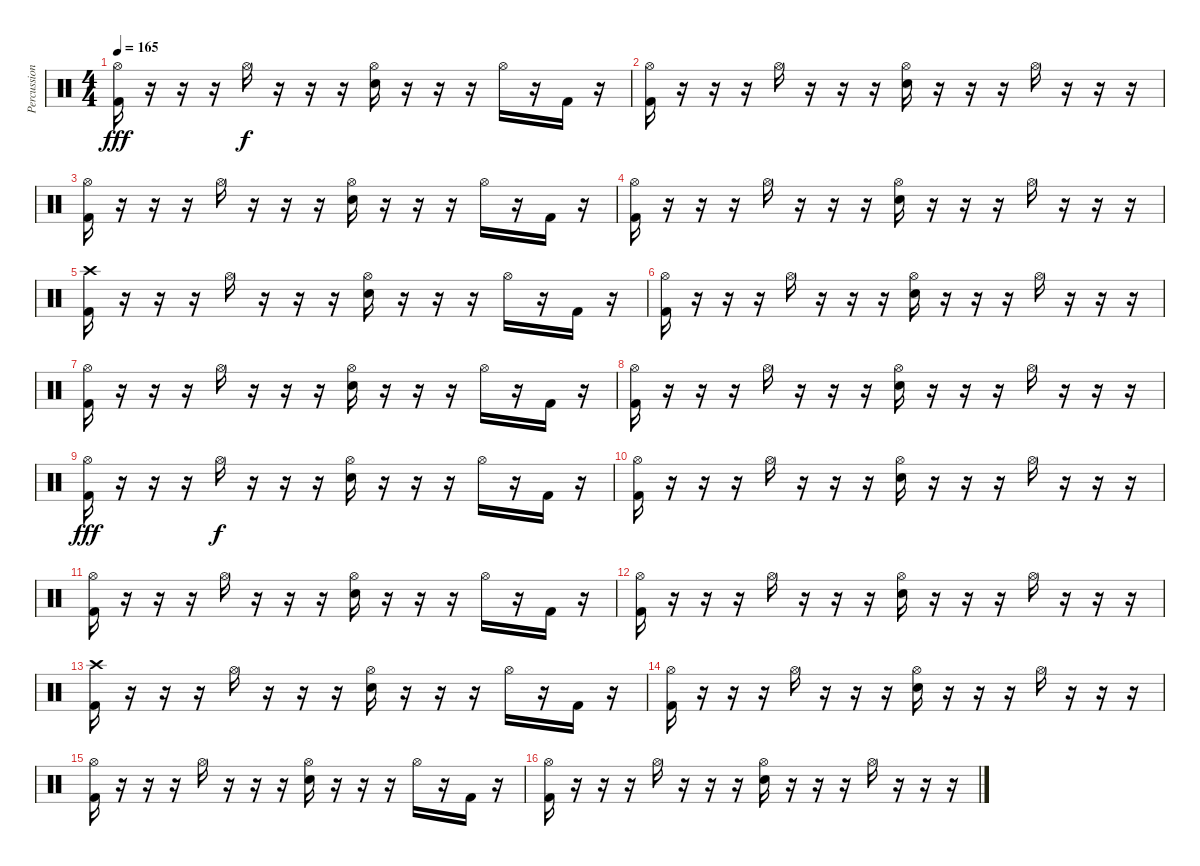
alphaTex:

\track ("Percussion" "Percussion") {instrument percussion}
\staff {score}
\articulation defaults
\ts (4 4)
\tempo 165
\clef neutral
\ks c
("Hi-Hat (open)" "Kick (hit) 2").16{dy fff} r.16 r.16 r.16 "Hi-Hat (open)".16{dy f} r.16 r.16 r.16 ("Hi-Hat (open)" "Snare (hit) 2").16 r.16 r.16 r.16 "Hi-Hat (open)".16 r.16 "Kick (hit) 2".16 r.16 |
("Hi-Hat (open)" "Kick (hit) 2").16 r.16 r.16 r.16 "Hi-Hat (open)".16 r.16 r.16 r.16 ("Hi-Hat (open)" "Snare (hit) 2").16 r.16 r.16 r.16 "Hi-Hat (open)".16 r.16 r.16 r.16 |
("Hi-Hat (open)" "Kick (hit) 2").16 r.16 r.16 r.16 "Hi-Hat (open)".16 r.16 r.16 r.16 ("Hi-Hat (open)" "Snare (hit) 2").16 r.16 r.16 r.16 "Hi-Hat (open)".16 r.16 "Kick (hit) 2".16 r.16 |
("Hi-Hat (open)" "Kick (hit) 2").16 r.16 r.16 r.16 "Hi-Hat (open)".16 r.16 r.16 r.16 ("Hi-Hat (open)" "Snare (hit) 2").16 r.16 r.16 r.16 "Hi-Hat (open)".16 r.16 r.16 r.16 |
("Crash high (hit)" "Kick (hit) 2").16 r.16 r.16 r.16 "Hi-Hat (open)".16 r.16 r.16 r.16 ("Hi-Hat (open)" "Snare (hit) 2").16 r.16 r.16 r.16 "Hi-Hat (open)".16 r.16 "Kick (hit) 2".16 r.16 |
("Hi-Hat (open)" "Kick (hit) 2").16 r.16 r.16 r.16 "Hi-Hat (open)".16 r.16 r.16 r.16 ("Hi-Hat (open)" "Snare (hit) 2").16 r.16 r.16 r.16 "Hi-Hat (open)".16 r.16 r.16 r.16 |
("Hi-Hat (open)" "Kick (hit) 2").16 r.16 r.16 r.16 "Hi-Hat (open)".16 r.16 r.16 r.16 ("Hi-Hat (open)" "Snare (hit) 2").16 r.16 r.16 r.16 "Hi-Hat (open)".16 r.16 "Kick (hit) 2".16 r.16 |
("Hi-Hat (open)" "Kick (hit) 2").16 r.16 r.16 r.16 "Hi-Hat (open)".16 r.16 r.16 r.16 ("Hi-Hat (open)" "Snare (hit) 2").16 r.16 r.16 r.16 "Hi-Hat (open)".16 r.16 r.16 r.16 |
("Hi-Hat (open)" "Kick (hit) 2").16{dy fff} r.16 r.16 r.16 "Hi-Hat (open)".16{dy f} r.16 r.16 r.16 ("Hi-Hat (open)" "Snare (hit) 2").16 r.16 r.16 r.16 "Hi-Hat (open)".16 r.16 "Kick (hit) 2".16 r.16 |
("Hi-Hat (open)" "Kick (hit) 2").16 r.16 r.16 r.16 "Hi-Hat (open)".16 r.16 r.16 r.16 ("Hi-Hat (open)" "Snare (hit) 2").16 r.16 r.16 r.16 "Hi-Hat (open)".16 r.16 r.16 r.16 |
("Hi-Hat (open)" "Kick (hit) 2").16 r.16 r.16 r.16 "Hi-Hat (open)".16 r.16 r.16 r.16 ("Hi-Hat (open)" "Snare (hit) 2").16 r.16 r.16 r.16 "Hi-Hat (open)".16 r.16 "Kick (hit) 2".16 r.16 |
("Hi-Hat (open)" "Kick (hit) 2").16 r.16 r.16 r.16 "Hi-Hat (open)".16 r.16 r.16 r.16 ("Hi-Hat (open)" "Snare (hit) 2").16 r.16 r.16 r.16 "Hi-Hat (open)".16 r.16 r.16 r.16 |
("Crash high (hit)" "Kick (hit) 2").16 r.16 r.16 r.16 "Hi-Hat (open)".16 r.16 r.16 r.16 ("Hi-Hat (open)" "Snare (hit) 2").16 r.16 r.16 r.16 "Hi-Hat (open)".16 r.16 "Kick (hit) 2".16 r.16 |
("Hi-Hat (open)" "Kick (hit) 2").16 r.16 r.16 r.16 "Hi-Hat (open)".16 r.16 r.16 r.16 ("Hi-Hat (open)" "Snare (hit) 2").16 r.16 r.16 r.16 "Hi-Hat (open)".16 r.16 r.16 r.16 |
("Hi-Hat (open)" "Kick (hit) 2").16 r.16 r.16 r.16 "Hi-Hat (open)".16 r.16 r.16 r.16 ("Hi-Hat (open)" "Snare (hit) 2").16 r.16 r.16 r.16 "Hi-Hat (open)".16 r.16 "Kick (hit) 2".16 r.16 |
("Hi-Hat (open)" "Kick (hit) 2").16 r.16 r.16 r.16 "Hi-Hat (open)".16 r.16 r.16 r.16 ("Hi-Hat (open)" "Snare (hit) 2").16 r.16 r.16 r.16 "Hi-Hat (open)".16 r.16 r.16 r.16
